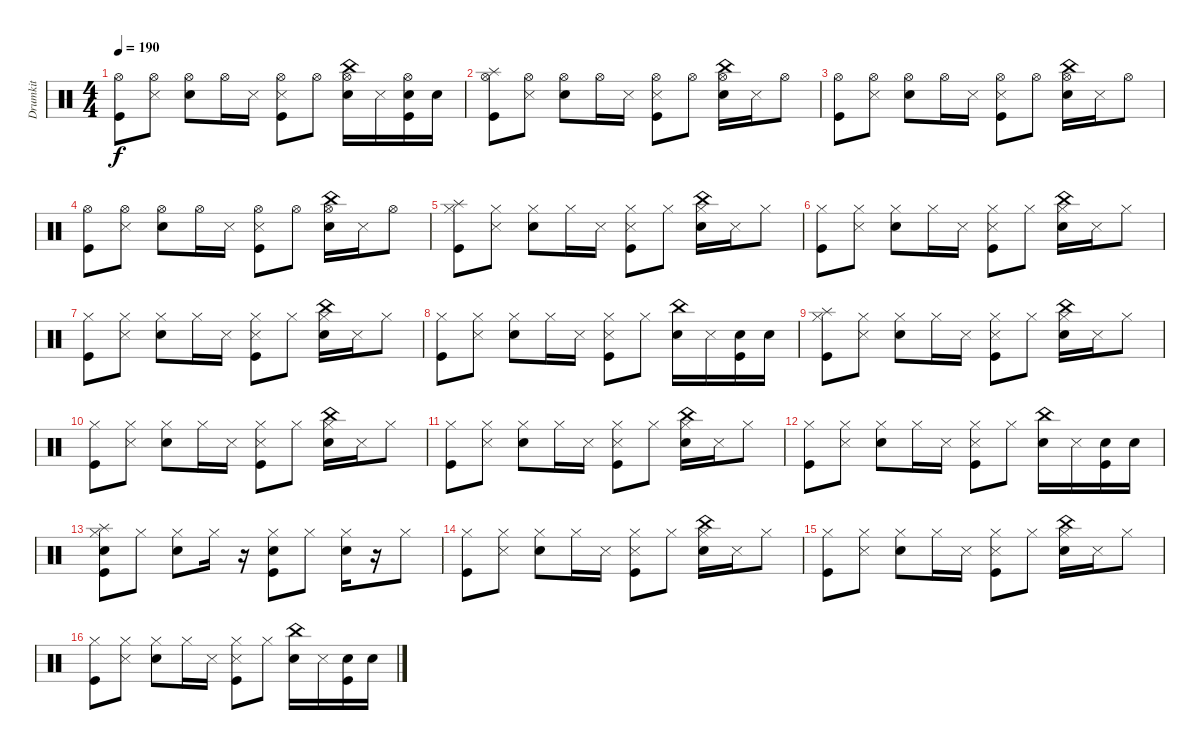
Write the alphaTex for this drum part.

\track ("Drumkit" "Drumkit") {instrument percussion}
\staff {score}
\articulation defaults
\ts (4 4)
\tempo 190
\clef neutral
\ks c
("Kick (hit)" "Hi-Hat (open)").8{dy f} ("Hi-Hat (open)" "Snare (side stick) 3").8 ("Snare (hit) 2" "Hi-Hat (open)").8 "Hi-Hat (open)".16 "Snare (side stick) 3".16 ("Kick (hit)" "Hi-Hat (open)" "Snare (side stick) 3").8 "Hi-Hat (open)".8 ("Snare (hit) 2" "Hi-Hat (open)" "China (hit)").16 "Snare (side stick) 3".16 ("Hi-Hat (open)" "Kick (hit)" "Snare (hit) 2").16 "Snare (hit) 2".16 |
("Kick (hit)" "Hi-Hat (open)" "Splash (hit)").8 ("Hi-Hat (open)" "Snare (side stick) 3").8 ("Snare (hit) 2" "Hi-Hat (open)").8 "Hi-Hat (open)".16 "Snare (side stick) 3".16 ("Kick (hit)" "Hi-Hat (open)" "Snare (side stick) 3").8 "Hi-Hat (open)".8 ("Snare (hit) 2" "Hi-Hat (open)" "China (hit)").16 "Snare (side stick) 3".16 "Hi-Hat (open)".8 |
("Kick (hit)" "Hi-Hat (open)").8 ("Hi-Hat (open)" "Snare (side stick) 3").8 ("Snare (hit) 2" "Hi-Hat (open)").8 "Hi-Hat (open)".16 "Snare (side stick) 3".16 ("Kick (hit)" "Hi-Hat (open)" "Snare (side stick) 3").8 "Hi-Hat (open)".8 ("Snare (hit) 2" "Hi-Hat (open)" "China (hit)").16 "Snare (side stick) 3".16 "Hi-Hat (open)".8 |
("Kick (hit)" "Hi-Hat (open)").8 ("Hi-Hat (open)" "Snare (side stick) 3").8 ("Snare (hit) 2" "Hi-Hat (open)").8 "Hi-Hat (open)".16 "Snare (side stick) 3".16 ("Kick (hit)" "Hi-Hat (open)" "Snare (side stick) 3").8 "Hi-Hat (open)".8 ("Snare (hit) 2" "Hi-Hat (open)" "China (hit)").16 "Snare (side stick) 3".16 "Hi-Hat (open)".8 |
("Kick (hit)" "Splash (hit)" "Hi-Hat (closed)").8 ("Snare (side stick) 3" "Hi-Hat (closed)").8 ("Snare (hit) 2" "Hi-Hat (closed)").8 "Hi-Hat (closed)".16 "Snare (side stick) 3".16 ("Kick (hit)" "Snare (side stick) 3" "Hi-Hat (closed)").8 "Hi-Hat (closed)".8 ("Snare (hit) 2" "China (hit)" "Hi-Hat (closed)").16 "Snare (side stick) 3".16 "Hi-Hat (closed)".8 |
("Kick (hit)" "Hi-Hat (closed)").8 ("Snare (side stick) 3" "Hi-Hat (closed)").8 ("Snare (hit) 2" "Hi-Hat (closed)").8 "Hi-Hat (closed)".16 "Snare (side stick) 3".16 ("Kick (hit)" "Snare (side stick) 3" "Hi-Hat (closed)").8 "Hi-Hat (closed)".8 ("Snare (hit) 2" "China (hit)" "Hi-Hat (closed)").16 "Snare (side stick) 3".16 "Hi-Hat (closed)".8 |
("Kick (hit)" "Hi-Hat (closed)").8 ("Snare (side stick) 3" "Hi-Hat (closed)").8 ("Snare (hit) 2" "Hi-Hat (closed)").8 "Hi-Hat (closed)".16 "Snare (side stick) 3".16 ("Kick (hit)" "Snare (side stick) 3" "Hi-Hat (closed)").8 "Hi-Hat (closed)".8 ("Snare (hit) 2" "China (hit)" "Hi-Hat (closed)").16 "Snare (side stick) 3".16 "Hi-Hat (closed)".8 |
("Kick (hit)" "Hi-Hat (closed)").8 ("Snare (side stick) 3" "Hi-Hat (closed)").8 ("Snare (hit) 2" "Hi-Hat (closed)").8 "Hi-Hat (closed)".16 "Snare (side stick) 3".16 ("Kick (hit)" "Snare (side stick) 3" "Hi-Hat (closed)").8 "Hi-Hat (closed)".8 ("Snare (hit) 2" "China (hit)").16 "Snare (side stick) 3".16 ("Kick (hit)" "Snare (hit) 2").16 "Snare (hit) 2".16 |
("Kick (hit)" "Splash (hit)" "Hi-Hat (closed)").8 ("Snare (side stick) 3" "Hi-Hat (closed)").8 ("Snare (hit) 2" "Hi-Hat (closed)").8 "Hi-Hat (closed)".16 "Snare (side stick) 3".16 ("Kick (hit)" "Snare (side stick) 3" "Hi-Hat (closed)").8 "Hi-Hat (closed)".8 ("Snare (hit) 2" "China (hit)" "Hi-Hat (closed)").16 "Snare (side stick) 3".16 "Hi-Hat (closed)".8 |
("Kick (hit)" "Hi-Hat (closed)").8 ("Snare (side stick) 3" "Hi-Hat (closed)").8 ("Snare (hit) 2" "Hi-Hat (closed)").8 "Hi-Hat (closed)".16 "Snare (side stick) 3".16 ("Kick (hit)" "Snare (side stick) 3" "Hi-Hat (closed)").8 "Hi-Hat (closed)".8 ("Snare (hit) 2" "China (hit)" "Hi-Hat (closed)").16 "Snare (side stick) 3".16 "Hi-Hat (closed)".8 |
("Kick (hit)" "Hi-Hat (closed)").8 ("Snare (side stick) 3" "Hi-Hat (closed)").8 ("Snare (hit) 2" "Hi-Hat (closed)").8 "Hi-Hat (closed)".16 "Snare (side stick) 3".16 ("Kick (hit)" "Snare (side stick) 3" "Hi-Hat (closed)").8 "Hi-Hat (closed)".8 ("Snare (hit) 2" "China (hit)" "Hi-Hat (closed)").16 "Snare (side stick) 3".16 "Hi-Hat (closed)".8 |
("Kick (hit)" "Hi-Hat (closed)").8 ("Snare (side stick) 3" "Hi-Hat (closed)").8 ("Snare (hit) 2" "Hi-Hat (closed)").8 "Hi-Hat (closed)".16 "Snare (side stick) 3".16 ("Kick (hit)" "Snare (side stick) 3" "Hi-Hat (closed)").8 "Hi-Hat (closed)".8 ("Snare (hit) 2" "China (hit)").16 "Snare (side stick) 3".16 ("Kick (hit)" "Snare (hit) 2").16 "Snare (hit) 2".16 |
("Kick (hit)" "Splash (hit)" "Hi-Hat (closed)" "Snare (hit) 2").8 "Hi-Hat (closed)".8 ("Snare (hit) 2" "Hi-Hat (closed)").8 "Hi-Hat (closed)".16 r.16 ("Kick (hit)" "Snare (hit) 2" "Hi-Hat (closed)").8 "Hi-Hat (closed)".8 ("Snare (hit) 2" "Hi-Hat (closed)").16 r.16 "Hi-Hat (closed)".8 |
("Kick (hit)" "Hi-Hat (closed)").8 ("Snare (side stick) 3" "Hi-Hat (closed)").8 ("Snare (hit) 2" "Hi-Hat (closed)").8 "Hi-Hat (closed)".16 "Snare (side stick) 3".16 ("Kick (hit)" "Snare (side stick) 3" "Hi-Hat (closed)").8 "Hi-Hat (closed)".8 ("Snare (hit) 2" "China (hit)" "Hi-Hat (closed)").16 "Snare (side stick) 3".16 "Hi-Hat (closed)".8 |
("Kick (hit)" "Hi-Hat (closed)").8 ("Snare (side stick) 3" "Hi-Hat (closed)").8 ("Snare (hit) 2" "Hi-Hat (closed)").8 "Hi-Hat (closed)".16 "Snare (side stick) 3".16 ("Kick (hit)" "Snare (side stick) 3" "Hi-Hat (closed)").8 "Hi-Hat (closed)".8 ("Snare (hit) 2" "China (hit)" "Hi-Hat (closed)").16 "Snare (side stick) 3".16 "Hi-Hat (closed)".8 |
("Kick (hit)" "Hi-Hat (closed)").8 ("Snare (side stick) 3" "Hi-Hat (closed)").8 ("Snare (hit) 2" "Hi-Hat (closed)").8 "Hi-Hat (closed)".16 "Snare (side stick) 3".16 ("Kick (hit)" "Snare (side stick) 3" "Hi-Hat (closed)").8 "Hi-Hat (closed)".8 ("Snare (hit) 2" "China (hit)").16 "Snare (side stick) 3".16 ("Kick (hit)" "Snare (hit) 2").16 "Snare (hit) 2".16
